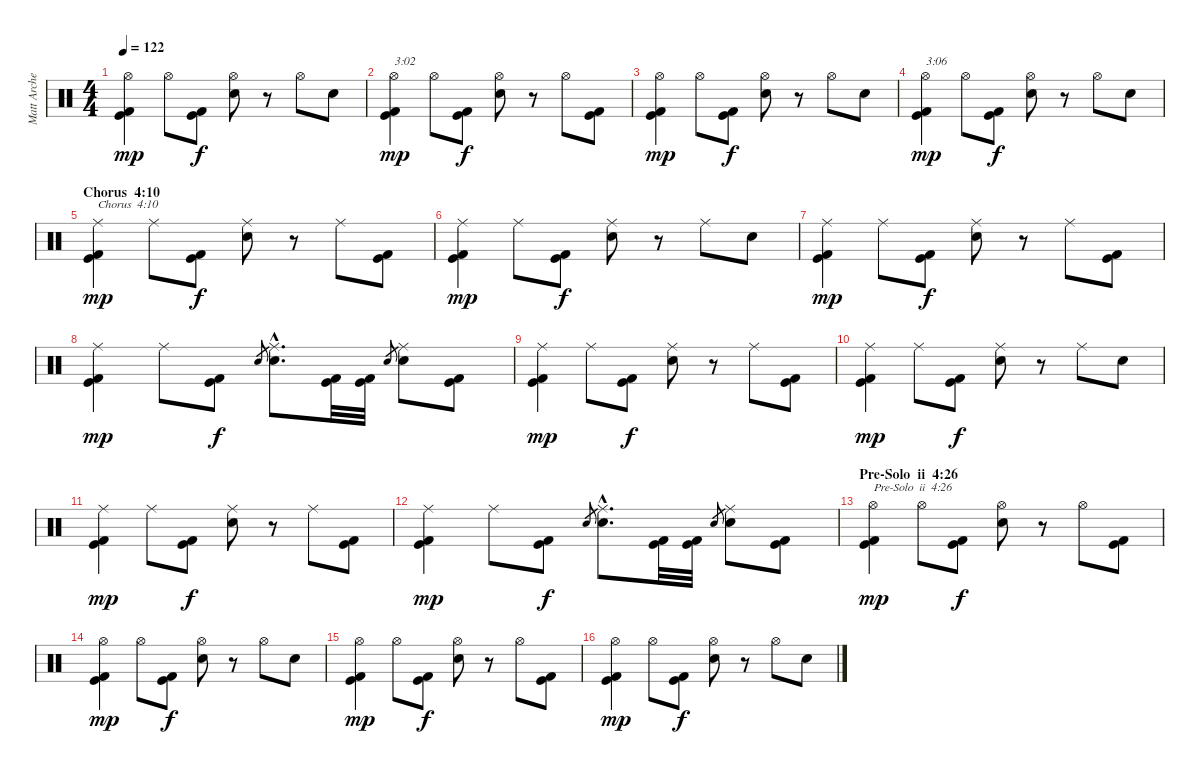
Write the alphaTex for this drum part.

\track ("Matt Archer" "Matt Arche") {instrument percussion}
\staff {score}
\articulation defaults
\ts (4 4)
\tempo 122
\clef neutral
\ks c
("Kick (hit)" "Kick (hit) 2" "Hi-Hat (open)").4{dy mp} "Hi-Hat (open)".8 ("Kick (hit)" "Kick (hit) 2").8{dy f} ("Electric Snare (hit)" "Hi-Hat (open)").8 r.8 "Hi-Hat (open)".8 "Electric Snare (hit)".8 |
("Kick (hit)" "Kick (hit) 2" "Hi-Hat (open)").4{txt "3:02" dy mp} "Hi-Hat (open)".8 ("Kick (hit)" "Kick (hit) 2").8{dy f} ("Electric Snare (hit)" "Hi-Hat (open)").8 r.8 "Hi-Hat (open)".8 ("Kick (hit)" "Kick (hit) 2").8 |
("Kick (hit)" "Kick (hit) 2" "Hi-Hat (open)").4{dy mp} "Hi-Hat (open)".8 ("Kick (hit)" "Kick (hit) 2").8{dy f} ("Electric Snare (hit)" "Hi-Hat (open)").8 r.8 "Hi-Hat (open)".8 "Electric Snare (hit)".8 |
("Kick (hit)" "Kick (hit) 2" "Hi-Hat (open)").4{txt "3:06" dy mp} "Hi-Hat (open)".8 ("Kick (hit)" "Kick (hit) 2").8{dy f} ("Electric Snare (hit)" "Hi-Hat (open)").8 r.8 "Hi-Hat (open)".8 "Electric Snare (hit)".8 |
\section ("" "Chorus  4:10")
("Kick (hit)" "Kick (hit) 2" "Ride (middle)").4{txt "Chorus  4:10" dy mp} "Ride (middle)".8 ("Kick (hit)" "Kick (hit) 2").8{dy f} ("Electric Snare (hit)" "Ride (middle)").8 r.8 "Ride (middle)".8 ("Kick (hit)" "Kick (hit) 2").8 |
("Kick (hit)" "Kick (hit) 2" "Ride (middle)").4{dy mp} "Ride (middle)".8 ("Kick (hit)" "Kick (hit) 2").8{dy f} ("Electric Snare (hit)" "Ride (middle)").8 r.8 "Ride (middle)".8 "Electric Snare (hit)".8 |
("Kick (hit)" "Kick (hit) 2" "Ride (middle)").4{dy mp} "Ride (middle)".8 ("Kick (hit)" "Kick (hit) 2").8{dy f} ("Electric Snare (hit)" "Ride (middle)").8 r.8 "Ride (middle)".8 ("Kick (hit)" "Kick (hit) 2").8 |
("Kick (hit)" "Kick (hit) 2" "Ride (middle)").4{dy mp} "Ride (middle)".8 ("Kick (hit)" "Kick (hit) 2").8{dy f} "Electric Snare (hit)".8{gr} ("Electric Snare (hit)"{hac} "Ride (middle)"{hac}).8{d} ("Kick (hit)" "Kick (hit) 2").32 ("Kick (hit)" "Kick (hit) 2").32 "Electric Snare (hit)".8{gr} ("Electric Snare (hit)" "Ride (middle)").8 ("Kick (hit)" "Kick (hit) 2").8 |
("Kick (hit)" "Kick (hit) 2" "Ride (middle)").4{dy mp} "Ride (middle)".8 ("Kick (hit)" "Kick (hit) 2").8{dy f} ("Electric Snare (hit)" "Ride (middle)").8 r.8 "Ride (middle)".8 ("Kick (hit)" "Kick (hit) 2").8 |
("Kick (hit)" "Kick (hit) 2" "Ride (middle)").4{dy mp} "Ride (middle)".8 ("Kick (hit)" "Kick (hit) 2").8{dy f} ("Electric Snare (hit)" "Ride (middle)").8 r.8 "Ride (middle)".8 "Electric Snare (hit)".8 |
("Kick (hit)" "Kick (hit) 2" "Ride (middle)").4{dy mp} "Ride (middle)".8 ("Kick (hit)" "Kick (hit) 2").8{dy f} ("Electric Snare (hit)" "Ride (middle)").8 r.8 "Ride (middle)".8 ("Kick (hit)" "Kick (hit) 2").8 |
("Kick (hit)" "Kick (hit) 2" "Ride (middle)").4{dy mp} "Ride (middle)".8 ("Kick (hit)" "Kick (hit) 2").8{dy f} "Electric Snare (hit)".8{gr} ("Electric Snare (hit)"{hac} "Ride (middle)"{hac}).8{d} ("Kick (hit)" "Kick (hit) 2").32 ("Kick (hit)" "Kick (hit) 2").32 "Electric Snare (hit)".8{gr} ("Electric Snare (hit)" "Ride (middle)").8 ("Kick (hit)" "Kick (hit) 2").8 |
\section ("" "Pre-Solo  ii  4:26")
("Kick (hit)" "Kick (hit) 2" "Hi-Hat (open)").4{txt "Pre-Solo  ii  4:26" dy mp} "Hi-Hat (open)".8 ("Kick (hit)" "Kick (hit) 2").8{dy f} ("Electric Snare (hit)" "Hi-Hat (open)").8 r.8 "Hi-Hat (open)".8 ("Kick (hit)" "Kick (hit) 2").8 |
("Kick (hit)" "Kick (hit) 2" "Hi-Hat (open)").4{dy mp} "Hi-Hat (open)".8 ("Kick (hit)" "Kick (hit) 2").8{dy f} ("Electric Snare (hit)" "Hi-Hat (open)").8 r.8 "Hi-Hat (open)".8 "Electric Snare (hit)".8 |
("Kick (hit)" "Kick (hit) 2" "Hi-Hat (open)").4{dy mp} "Hi-Hat (open)".8 ("Kick (hit)" "Kick (hit) 2").8{dy f} ("Electric Snare (hit)" "Hi-Hat (open)").8 r.8 "Hi-Hat (open)".8 ("Kick (hit)" "Kick (hit) 2").8 |
("Kick (hit)" "Kick (hit) 2" "Hi-Hat (open)").4{dy mp} "Hi-Hat (open)".8 ("Kick (hit)" "Kick (hit) 2").8{dy f} ("Electric Snare (hit)" "Hi-Hat (open)").8 r.8 "Hi-Hat (open)".8 "Electric Snare (hit)".8
